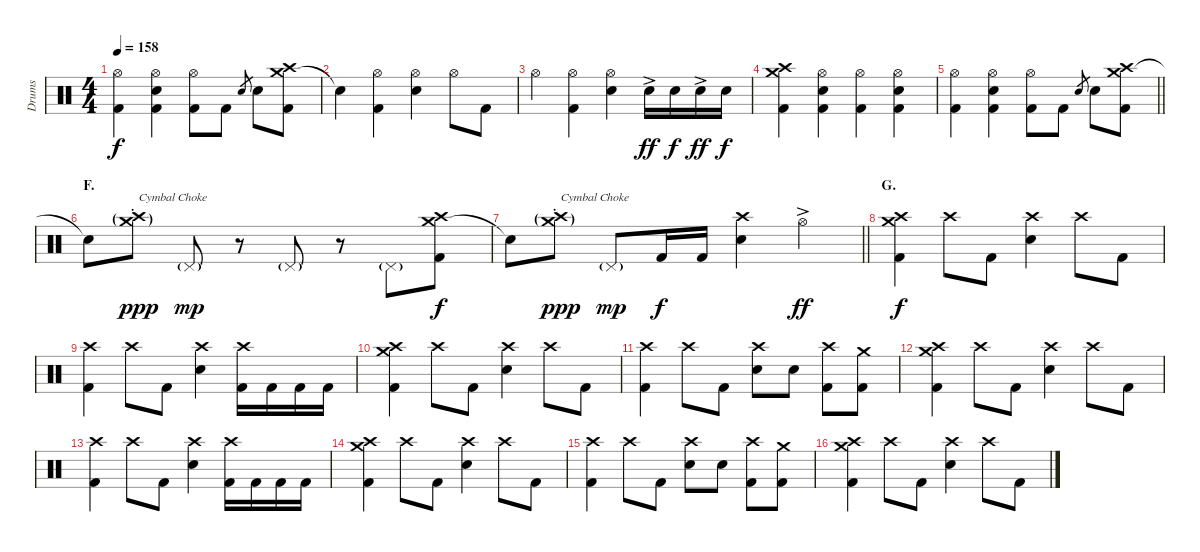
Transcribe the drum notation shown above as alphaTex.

\track ("Drums" "Drums") {instrument percussion}
\staff {score}
\articulation defaults
\ts (4 4)
\tempo 158
\clef neutral
\ks c
("Hi-Hat (open)" "Kick (hit) 2").4{dy f} ("Hi-Hat (open)" "Electric Snare (hit)" "Kick (hit) 2").4 ("Hi-Hat (open)" "Kick (hit) 2").8 "Kick (hit) 2".8 "Electric Snare (hit)".8{gr} "Electric Snare (hit)".8 ("Crash medium (hit)" "Crash high (hit)" "Kick (hit) 2").8 |
"Snare (hit)"{t}.4 ("Hi-Hat (open)" "Kick (hit) 2").4 ("Hi-Hat (open)" "Electric Snare (hit)").4 "Hi-Hat (open)".8 "Kick (hit) 2".8 |
"Hi-Hat (open)".4 ("Hi-Hat (open)" "Kick (hit) 2").4 ("Hi-Hat (open)" "Electric Snare (hit)").4 "Electric Snare (hit)"{ac}.16{dy ff} "Electric Snare (hit)".16{dy f} "Electric Snare (hit)"{ac}.16{dy ff} "Electric Snare (hit)".16{dy f} |
("Crash medium (hit)" "Crash high (hit)" "Kick (hit) 2").4 ("Hi-Hat (open)" "Electric Snare (hit)" "Kick (hit) 2").4 ("Hi-Hat (open)" "Kick (hit) 2").4 ("Hi-Hat (open)" "Electric Snare (hit)" "Kick (hit) 2").4 |
\barLineRight lightlight
("Hi-Hat (open)" "Kick (hit) 2").4 ("Hi-Hat (open)" "Electric Snare (hit)" "Kick (hit) 2").4 ("Hi-Hat (open)" "Kick (hit) 2").8 "Kick (hit) 2".8 "Electric Snare (hit)".8{gr} "Electric Snare (hit)".8 ("Crash medium (hit)" "Crash high (hit)" "Kick (hit) 2").8 |
\section ("" "F.")
"Snare (hit)"{t}.8 ("Crash medium (hit)"{g st} "Crash high (hit)"{g st}).8{txt "Cymbal Choke" dy ppp} "Pedal Hi-Hat (hit)"{g}.8{dy mp} r.8 "Pedal Hi-Hat (hit)"{g}.8 r.8 "Pedal Hi-Hat (hit)"{g}.8 ("Crash medium (hit)" "Crash high (hit)" "Kick (hit) 2").8{dy f} |
\barLineRight lightlight "Snare (hit)"{t}.8
("Crash medium (hit)"{g st} "Crash high (hit)"{g st}).8{txt "Cymbal Choke" dy ppp} "Pedal Hi-Hat (hit)"{g}.8{dy mp} "Kick (hit) 2".16{dy f} "Kick (hit) 2".16 ("Crash high (hit)" "Electric Snare (hit)").4 "Hi-Hat (open)"{ac}.4{dy ff} |
\section ("" "G.")
("Crash medium (hit)" "Crash high (hit)" "Kick (hit) 2").4{dy f} "Crash high (hit)".8 "Kick (hit) 2".8 ("Crash high (hit)" "Electric Snare (hit)").4 "Crash high (hit)".8 "Kick (hit) 2".8 |
("Crash high (hit)" "Kick (hit) 2").4 "Crash high (hit)".8 "Kick (hit) 2".8 ("Crash high (hit)" "Electric Snare (hit)").4 ("Crash high (hit)" "Kick (hit) 2").16 "Kick (hit) 2".16 "Kick (hit) 2".16 "Kick (hit) 2".16 |
("Crash medium (hit)" "Crash high (hit)" "Kick (hit) 2").4 "Crash high (hit)".8 "Kick (hit) 2".8 ("Crash high (hit)" "Electric Snare (hit)").4 "Crash high (hit)".8 "Kick (hit) 2".8 |
("Crash high (hit)" "Kick (hit) 2").4 "Crash high (hit)".8 "Kick (hit) 2".8 ("Crash high (hit)" "Electric Snare (hit)").8 "Electric Snare (hit)".8 ("Crash high (hit)" "Kick (hit) 2").8 ("Crash medium (hit)" "Kick (hit) 2").8 |
("Crash medium (hit)" "Crash high (hit)" "Kick (hit) 2").4 "Crash high (hit)".8 "Kick (hit) 2".8 ("Crash high (hit)" "Electric Snare (hit)").4 "Crash high (hit)".8 "Kick (hit) 2".8 |
("Crash high (hit)" "Kick (hit) 2").4 "Crash high (hit)".8 "Kick (hit) 2".8 ("Crash high (hit)" "Electric Snare (hit)").4 ("Crash high (hit)" "Kick (hit) 2").16 "Kick (hit) 2".16 "Kick (hit) 2".16 "Kick (hit) 2".16 |
("Crash medium (hit)" "Crash high (hit)" "Kick (hit) 2").4 "Crash high (hit)".8 "Kick (hit) 2".8 ("Crash high (hit)" "Electric Snare (hit)").4 "Crash high (hit)".8 "Kick (hit) 2".8 |
("Crash high (hit)" "Kick (hit) 2").4 "Crash high (hit)".8 "Kick (hit) 2".8 ("Crash high (hit)" "Electric Snare (hit)").8 "Electric Snare (hit)".8 ("Crash high (hit)" "Kick (hit) 2").8 ("Crash medium (hit)" "Kick (hit) 2").8 |
("Crash medium (hit)" "Crash high (hit)" "Kick (hit) 2").4 "Crash high (hit)".8 "Kick (hit) 2".8 ("Crash high (hit)" "Electric Snare (hit)").4 "Crash high (hit)".8 "Kick (hit) 2".8
